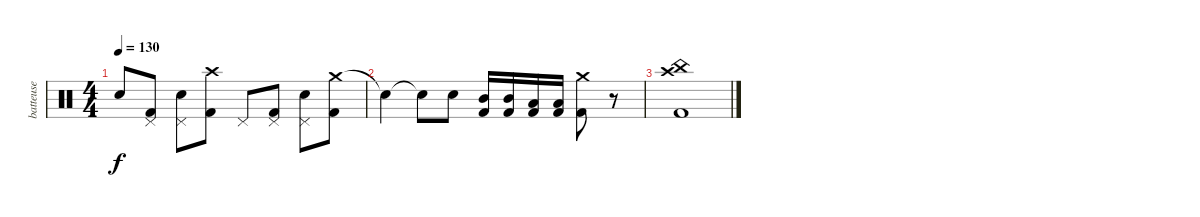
\track ("batteuse" "batteuse") {instrument percussion}
\staff {score}
\articulation defaults
\ts (4 4)
\tempo 130
\clef neutral
\ks c "Snare (hit)"{t}.8{dy f}
("Kick (hit) 2" "Pedal Hi-Hat (hit)").8 ("Snare (hit) 2" "Pedal Hi-Hat (hit)").8 ("Crash high (hit)" "Kick (hit) 2").8 "Pedal Hi-Hat (hit)".8 ("Kick (hit) 2" "Pedal Hi-Hat (hit)").8 ("Snare (hit) 2" "Pedal Hi-Hat (hit)").8 ("Crash medium (hit)" "Kick (hit) 2").8 |
"Snare (hit)"{t}.4 "Snare (hit)"{t}.8 "Snare (hit) 2".8 ("Mid Tom (hit)" "Kick (hit) 2").16 ("Mid Tom (hit)" "Kick (hit) 2").16 ("Low Tom (hit)" "Kick (hit) 2").16 ("Low Tom (hit)" "Kick (hit) 2").16 ("Crash medium (hit)" "Kick (hit) 2").8 r.8 |
("Crash high (hit)" "China (hit)" "Kick (hit) 2").1
